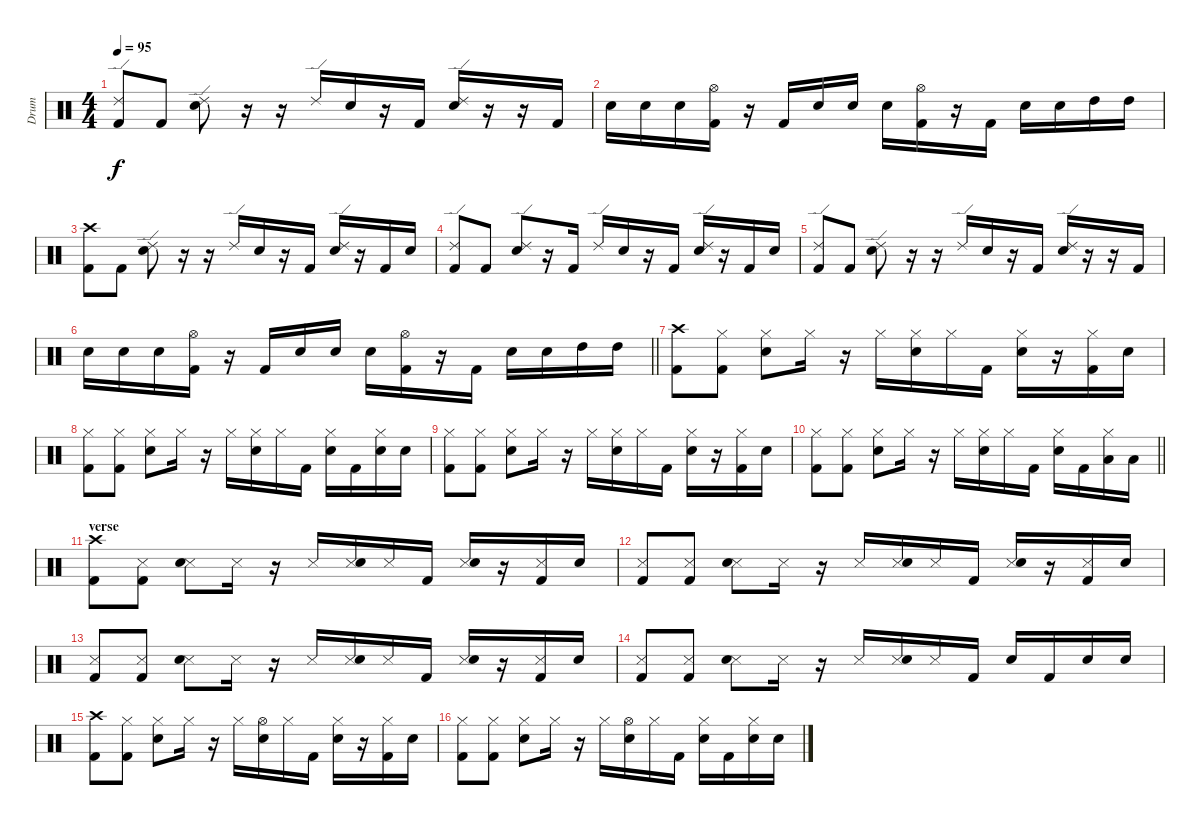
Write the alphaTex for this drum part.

\track ("Drum" "Drum") {instrument percussion}
\staff {score}
\articulation defaults
\ts (4 4)
\tempo 95
\clef neutral
\ks c
("Ride (edge) 2" "Kick (hit) 2").8{dy f} "Kick (hit) 2".8 ("Ride (edge) 2" "Snare (hit) 2").8 r.16 r.16 "Ride (edge) 2".16 "Snare (hit) 2".16 r.16 "Kick (hit) 2".16 ("Ride (edge) 2" "Snare (hit) 2").16 r.16 r.16 "Kick (hit) 2".16 |
"Snare (hit) 2".16 "Snare (hit) 2".16 "Snare (hit) 2".16 ("Hi-Hat (open)" "Kick (hit) 2").16 r.16 "Kick (hit) 2".16 "Snare (hit) 2".16 "Snare (hit) 2".16 "Snare (hit) 2".16 ("Hi-Hat (open)" "Kick (hit) 2").16 r.16 "Kick (hit) 2".16 "Snare (hit) 2".16 "Snare (hit) 2".16 "High Tom (hit)".16 "High Tom (hit)".16 |
("Crash high (hit)" "Kick (hit) 2").8 "Kick (hit) 2".8 ("Ride (edge) 2" "Snare (hit) 2").8 r.16 r.16 "Ride (edge) 2".16 "Snare (hit) 2".16 r.16 "Kick (hit) 2".16 ("Ride (edge) 2" "Snare (hit) 2").16 r.16 "Kick (hit) 2".16 "Snare (hit) 2".16 |
("Ride (edge) 2" "Kick (hit) 2").8 "Kick (hit) 2".8 ("Ride (edge) 2" "Snare (hit) 2").8 r.16 "Kick (hit) 2".16 "Ride (edge) 2".16 "Snare (hit) 2".16 r.16 "Kick (hit) 2".16 ("Ride (edge) 2" "Snare (hit) 2").16 r.16 "Kick (hit) 2".16 "Snare (hit) 2".16 |
("Ride (edge) 2" "Kick (hit) 2").8 "Kick (hit) 2".8 ("Ride (edge) 2" "Snare (hit) 2").8 r.16 r.16 "Ride (edge) 2".16 "Snare (hit) 2".16 r.16 "Kick (hit) 2".16 ("Ride (edge) 2" "Snare (hit) 2").16 r.16 r.16 "Kick (hit) 2".16 |
\barLineRight lightlight "Snare (hit) 2".16 "Snare (hit) 2".16 "Snare (hit) 2".16
("Hi-Hat (open)" "Kick (hit) 2").16 r.16 "Kick (hit) 2".16 "Snare (hit) 2".16 "Snare (hit) 2".16 "Snare (hit) 2".16 ("Hi-Hat (open)" "Kick (hit) 2").16 r.16 "Kick (hit) 2".16 "Snare (hit) 2".16 "Snare (hit) 2".16 "High Tom (hit)".16 "High Tom (hit)".16 |
\section ("" "")
("Crash high (hit)" "Kick (hit) 2").8 ("Hi-Hat (closed)" "Kick (hit) 2").8 ("Hi-Hat (closed)" "Snare (hit) 2").8 "Hi-Hat (closed)".16 r.16 "Hi-Hat (closed)".16 ("Hi-Hat (closed)" "Snare (hit) 2").16 "Hi-Hat (closed)".16 "Kick (hit) 2".16 ("Hi-Hat (closed)" "Snare (hit) 2").16 r.16 ("Hi-Hat (closed)" "Kick (hit) 2").16 "Snare (hit) 2".16 |
("Hi-Hat (closed)" "Kick (hit) 2").8 ("Hi-Hat (closed)" "Kick (hit) 2").8 ("Hi-Hat (closed)" "Snare (hit) 2").8 "Hi-Hat (closed)".16 r.16 "Hi-Hat (closed)".16 ("Hi-Hat (closed)" "Snare (hit) 2").16 "Hi-Hat (closed)".16 "Kick (hit) 2".16 ("Hi-Hat (closed)" "Snare (hit) 2").16 "Kick (hit) 2".16 ("Hi-Hat (closed)" "Snare (hit) 2").16 "Snare (hit) 2".16 |
("Hi-Hat (closed)" "Kick (hit) 2").8 ("Hi-Hat (closed)" "Kick (hit) 2").8 ("Hi-Hat (closed)" "Snare (hit) 2").8 "Hi-Hat (closed)".16 r.16 "Hi-Hat (closed)".16 ("Hi-Hat (closed)" "Snare (hit) 2").16 "Hi-Hat (closed)".16 "Kick (hit) 2".16 ("Hi-Hat (closed)" "Snare (hit) 2").16 r.16 ("Hi-Hat (closed)" "Kick (hit) 2").16 "Snare (hit) 2".16 |
\barLineRight lightlight
("Hi-Hat (closed)" "Kick (hit) 2").8 ("Hi-Hat (closed)" "Kick (hit) 2").8 ("Hi-Hat (closed)" "Snare (hit) 2").8 "Hi-Hat (closed)".16 r.16 "Hi-Hat (closed)".16 ("Hi-Hat (closed)" "Snare (hit) 2").16 "Hi-Hat (closed)".16 "Kick (hit) 2".16 ("Hi-Hat (closed)" "Snare (hit) 2").16 "Kick (hit) 2".16 ("Hi-Hat (closed)" "Low Tom (hit)").16 "Low Tom (hit)".16 |
\section ("" "verse")
("Crash high (hit)" "Kick (hit) 2").8 ("Snare (side stick) 3" "Kick (hit) 2").8 ("Snare (side stick) 3" "Snare (hit) 2").8 "Snare (side stick) 3".16 r.16 "Snare (side stick) 3".16 ("Snare (side stick) 3" "Snare (hit) 2").16 "Snare (side stick) 3".16 "Kick (hit) 2".16 ("Snare (side stick) 3" "Snare (hit) 2").16 r.16 ("Snare (side stick) 3" "Kick (hit) 2").16 "Snare (hit) 2".16 |
("Snare (side stick) 3" "Kick (hit) 2").8 ("Snare (side stick) 3" "Kick (hit) 2").8 ("Snare (side stick) 3" "Snare (hit) 2").8 "Snare (side stick) 3".16 r.16 "Snare (side stick) 3".16 ("Snare (side stick) 3" "Snare (hit) 2").16 "Snare (side stick) 3".16 "Kick (hit) 2".16 ("Snare (side stick) 3" "Snare (hit) 2").16 r.16 ("Snare (side stick) 3" "Kick (hit) 2").16 "Snare (hit) 2".16 |
("Snare (side stick) 3" "Kick (hit) 2").8 ("Snare (side stick) 3" "Kick (hit) 2").8 ("Snare (side stick) 3" "Snare (hit) 2").8 "Snare (side stick) 3".16 r.16 "Snare (side stick) 3".16 ("Snare (side stick) 3" "Snare (hit) 2").16 "Snare (side stick) 3".16 "Kick (hit) 2".16 ("Snare (side stick) 3" "Snare (hit) 2").16 r.16 ("Snare (side stick) 3" "Kick (hit) 2").16 "Snare (hit) 2".16 |
("Snare (side stick) 3" "Kick (hit) 2").8 ("Snare (side stick) 3" "Kick (hit) 2").8 ("Snare (side stick) 3" "Snare (hit) 2").8 "Snare (side stick) 3".16 r.16 "Snare (side stick) 3".16 ("Snare (side stick) 3" "Snare (hit) 2").16 "Snare (side stick) 3".16 "Kick (hit) 2".16 "Snare (hit) 2".16 "Kick (hit) 2".16 "Snare (hit) 2".16 "Snare (hit) 2".16 |
("Crash high (hit)" "Kick (hit) 2").8 ("Hi-Hat (closed)" "Kick (hit) 2").8 ("Hi-Hat (closed)" "Snare (hit) 2").8 "Hi-Hat (closed)".16 r.16 "Hi-Hat (closed)".16 ("Hi-Hat (open)" "Snare (hit) 2").16 "Hi-Hat (closed)".16 "Kick (hit) 2".16 ("Hi-Hat (closed)" "Snare (hit) 2").16 r.16 ("Hi-Hat (closed)" "Kick (hit) 2").16 "Snare (hit) 2".16 |
("Hi-Hat (closed)" "Kick (hit) 2").8 ("Hi-Hat (closed)" "Kick (hit) 2").8 ("Hi-Hat (closed)" "Snare (hit) 2").8 "Hi-Hat (closed)".16 r.16 "Hi-Hat (closed)".16 ("Hi-Hat (open)" "Snare (hit) 2").16 "Hi-Hat (closed)".16 "Kick (hit) 2".16 ("Hi-Hat (closed)" "Snare (hit) 2").16 "Kick (hit) 2".16 ("Hi-Hat (closed)" "Snare (hit) 2").16 "Snare (hit) 2".16
